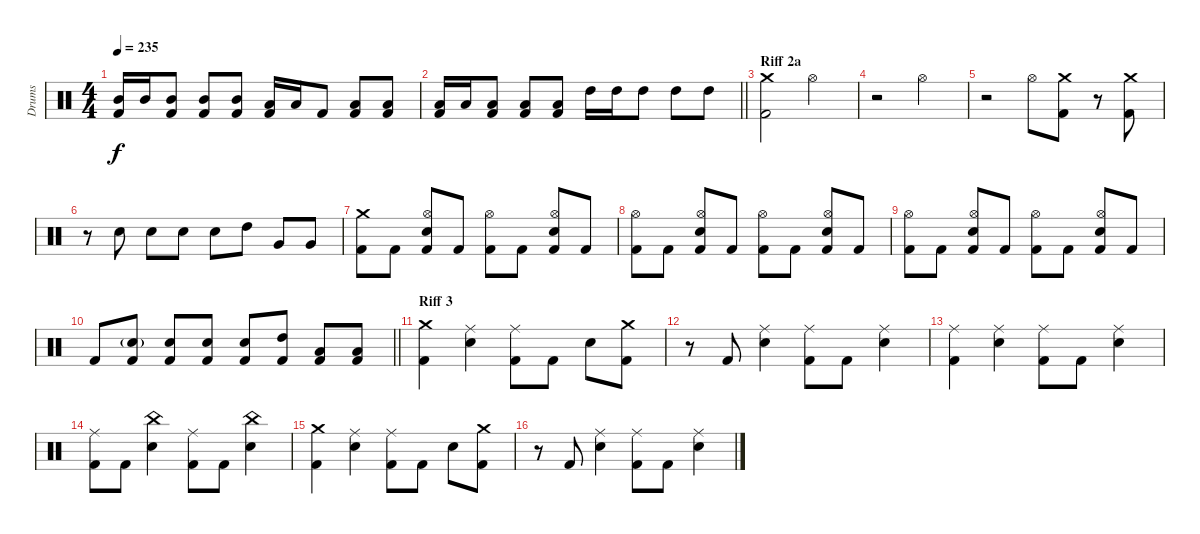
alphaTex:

\track ("Drums" "Drums") {instrument percussion}
\staff {score}
\articulation defaults
\ts (4 4)
\tempo 235
\clef neutral
\ks aminor
("Mid Tom (hit)" "Kick (hit) 2").16{dy f} "Mid Tom (hit)".16 ("Mid Tom (hit)" "Kick (hit) 2").8 ("Mid Tom (hit)" "Kick (hit) 2").8 ("Mid Tom (hit)" "Kick (hit) 2").8 ("Low Tom (hit)" "Kick (hit) 2").16 "Low Tom (hit)".16 "Kick (hit) 2".8 ("Low Tom (hit)" "Kick (hit) 2").8 ("Low Tom (hit)" "Kick (hit) 2").8 |
\barLineRight lightlight
("Low Floor Tom (hit)" "Kick (hit) 2").16 "Low Floor Tom (hit)".16 ("Low Floor Tom (hit)" "Kick (hit) 2").8 ("Low Floor Tom (hit)" "Kick (hit) 2").8 ("Low Floor Tom (hit)" "Kick (hit) 2").8 "High Tom (hit)".16 "High Tom (hit)".16 "High Tom (hit)".8 "High Tom (hit)".8 "High Tom (hit)".8 |
\section ("" "Riff 2a")
("Crash medium (hit)" "Kick (hit) 2").2 "Hi-Hat (open)".2 |
r.2 "Hi-Hat (open)".2 |
r.2 "Hi-Hat (open)".8 ("Kick (hit) 2" "Crash medium (hit)").8 r.8 ("Kick (hit) 2" "Crash medium (hit)").8 |
r.8 "Electric Snare (hit)".8 "Electric Snare (hit)".8 "Electric Snare (hit)".8 "Electric Snare (hit)".8 "High Tom (hit)".8 "Very Low Tom (hit)".8 "Very Low Tom (hit)".8 |
("Crash medium (hit)" "Kick (hit) 2").8 "Kick (hit) 2".8 ("Electric Snare (hit)" "Kick (hit) 2" "Hi-Hat (open)").8 "Kick (hit) 2".8 ("Hi-Hat (open)" "Kick (hit) 2").8 "Kick (hit) 2".8 ("Hi-Hat (open)" "Kick (hit) 2" "Electric Snare (hit)").8 "Kick (hit) 2".8 |
("Hi-Hat (open)" "Kick (hit) 2").8 "Kick (hit) 2".8 ("Hi-Hat (open)" "Kick (hit) 2" "Electric Snare (hit)").8 "Kick (hit) 2".8 ("Hi-Hat (open)" "Kick (hit) 2").8 "Kick (hit) 2".8 ("Hi-Hat (open)" "Kick (hit) 2" "Electric Snare (hit)").8 "Kick (hit) 2".8 |
("Hi-Hat (open)" "Kick (hit) 2").8 "Kick (hit) 2".8 ("Hi-Hat (open)" "Kick (hit) 2" "Electric Snare (hit)").8 "Kick (hit) 2".8 ("Hi-Hat (open)" "Kick (hit) 2").8 "Kick (hit) 2".8 ("Hi-Hat (open)" "Kick (hit) 2" "Electric Snare (hit)").8 "Kick (hit) 2".8 |
\barLineRight lightlight "Kick (hit) 2".8
("Electric Snare (hit)"{g} "Kick (hit) 2").8 ("Electric Snare (hit)" "Kick (hit) 2").8 ("Electric Snare (hit)" "Kick (hit) 2").8 ("Electric Snare (hit)" "Kick (hit) 2").8 ("High Tom (hit)" "Kick (hit) 2").8 ("Low Tom (hit)" "Kick (hit) 2").8 ("Low Tom (hit)" "Kick (hit) 2").8 |
\section ("" "Riff 3")
("Crash medium (hit)" "Kick (hit) 2").4 ("Ride (middle)" "Electric Snare (hit)").4 ("Ride (middle)" "Kick (hit) 2").8 "Kick (hit) 2".8 "Electric Snare (hit)".8 ("Kick (hit) 2" "Crash medium (hit)").8 |
r.8 "Kick (hit) 2".8 ("Electric Snare (hit)" "Ride (middle)").4 ("Kick (hit) 2" "Ride (middle)").8 "Kick (hit) 2".8 ("Electric Snare (hit)" "Ride (middle)").4 |
("Ride (middle)" "Kick (hit) 2").4 ("Ride (middle)" "Electric Snare (hit)").4 ("Ride (middle)" "Kick (hit) 2").8 "Kick (hit) 2".8 ("Ride (middle)" "Electric Snare (hit)").4 |
("Ride (middle)" "Kick (hit) 2").8 "Kick (hit) 2".8 ("China (hit)" "Electric Snare (hit)").4 ("Ride (middle)" "Kick (hit) 2").8 "Kick (hit) 2".8 ("China (hit)" "Electric Snare (hit)").4 |
("Crash medium (hit)" "Kick (hit) 2").4 ("Ride (middle)" "Electric Snare (hit)").4 ("Ride (middle)" "Kick (hit) 2").8 "Kick (hit) 2".8 "Electric Snare (hit)".8 ("Kick (hit) 2" "Crash medium (hit)").8 |
r.8 "Kick (hit) 2".8 ("Electric Snare (hit)" "Ride (middle)").4 ("Kick (hit) 2" "Ride (middle)").8 "Kick (hit) 2".8 ("Electric Snare (hit)" "Ride (middle)").4
